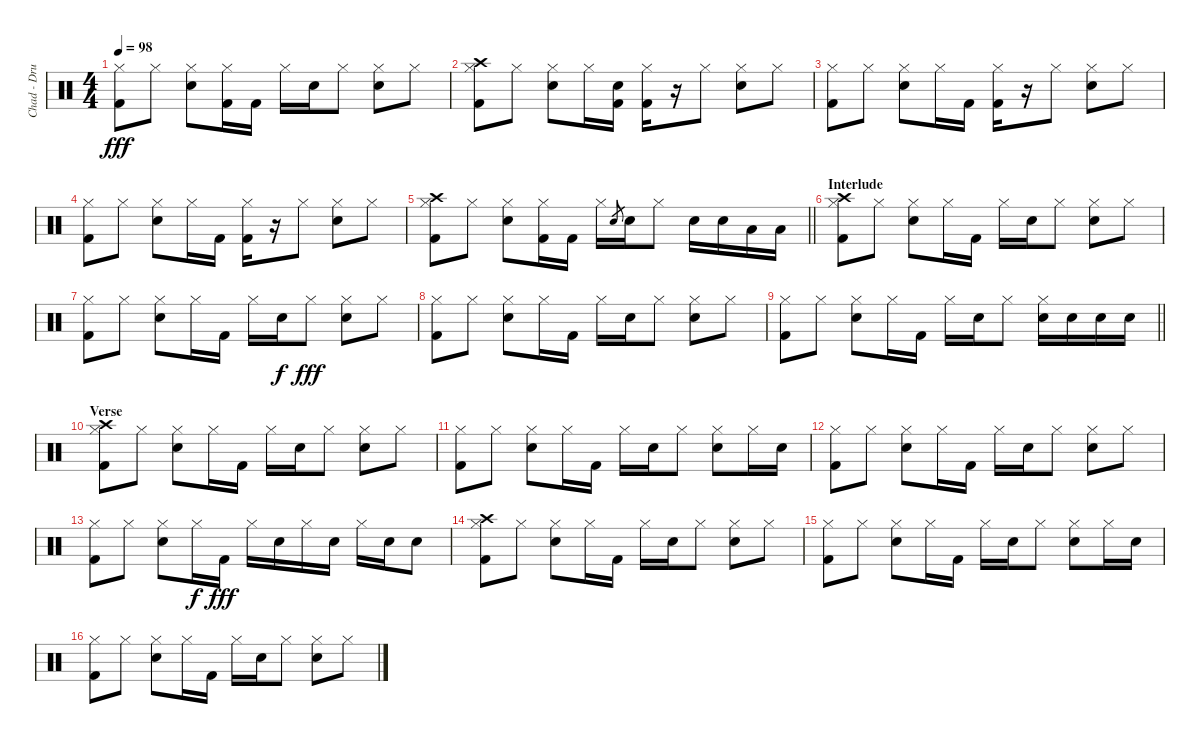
\track ("Chad - Drums" "Chad - Dru") {instrument percussion}
\staff {score}
\articulation defaults
\ts (4 4)
\tempo 98
\clef neutral
\ks c
("Hi-Hat (closed)" "Kick (hit) 2").8{dy fff} "Hi-Hat (closed)".8 ("Snare (hit) 2" "Hi-Hat (closed)").8 ("Hi-Hat (closed)" "Kick (hit) 2").16 "Kick (hit) 2".16 "Hi-Hat (closed)".16 "Snare (hit) 2".16 "Hi-Hat (closed)".8 ("Snare (hit) 2" "Hi-Hat (closed)").8 "Hi-Hat (closed)".8 |
("Hi-Hat (closed)" "Crash high (hit)" "Kick (hit) 2").8 "Hi-Hat (closed)".8 ("Snare (hit) 2" "Hi-Hat (closed)").8 "Hi-Hat (closed)".16 ("Snare (hit) 2" "Kick (hit) 2").16 ("Hi-Hat (closed)" "Kick (hit) 2").16 r.16 "Hi-Hat (closed)".8 ("Snare (hit) 2" "Hi-Hat (closed)").8 "Hi-Hat (closed)".8 |
("Hi-Hat (closed)" "Kick (hit) 2").8 "Hi-Hat (closed)".8 ("Snare (hit) 2" "Hi-Hat (closed)").8 "Hi-Hat (closed)".16 "Kick (hit) 2".16 ("Hi-Hat (closed)" "Kick (hit) 2").16 r.16 "Hi-Hat (closed)".8 ("Snare (hit) 2" "Hi-Hat (closed)").8 "Hi-Hat (closed)".8 |
("Hi-Hat (closed)" "Kick (hit) 2").8 "Hi-Hat (closed)".8 ("Snare (hit) 2" "Hi-Hat (closed)").8 "Hi-Hat (closed)".16 "Kick (hit) 2".16 ("Hi-Hat (closed)" "Kick (hit) 2").16 r.16 "Hi-Hat (closed)".8 ("Snare (hit) 2" "Hi-Hat (closed)").8 "Hi-Hat (closed)".8 |
\barLineRight lightlight
("Hi-Hat (closed)" "Crash high (hit)" "Kick (hit) 2").8 "Hi-Hat (closed)".8 ("Snare (hit) 2" "Hi-Hat (closed)").8 ("Hi-Hat (closed)" "Kick (hit) 2").16 "Kick (hit) 2".16 "Hi-Hat (closed)".16 "Snare (hit) 2".8{gr} "Snare (hit) 2".16 "Hi-Hat (closed)".8 "Snare (hit) 2".16 "Snare (hit) 2".16 "Low Tom (hit)".16 "Low Tom (hit)".16 |
\section ("" "Interlude")
("Hi-Hat (closed)" "Crash high (hit)" "Kick (hit) 2").8 "Hi-Hat (closed)".8 ("Snare (hit) 2" "Hi-Hat (closed)").8 "Hi-Hat (closed)".16 "Kick (hit) 2".16 "Hi-Hat (closed)".16 "Snare (hit) 2".16 "Hi-Hat (closed)".8 ("Snare (hit) 2" "Hi-Hat (closed)").8 "Hi-Hat (closed)".8 |
("Hi-Hat (closed)" "Kick (hit) 2").8 "Hi-Hat (closed)".8 ("Snare (hit) 2" "Hi-Hat (closed)").8 "Hi-Hat (closed)".16 "Kick (hit) 2".16 "Hi-Hat (closed)".16 "Snare (hit) 2".16{dy f} "Hi-Hat (closed)".8{dy fff} ("Snare (hit) 2" "Hi-Hat (closed)").8 "Hi-Hat (closed)".8 |
("Hi-Hat (closed)" "Kick (hit) 2").8 "Hi-Hat (closed)".8 ("Snare (hit) 2" "Hi-Hat (closed)").8 "Hi-Hat (closed)".16 "Kick (hit) 2".16 "Hi-Hat (closed)".16 "Snare (hit) 2".16 "Hi-Hat (closed)".8 ("Snare (hit) 2" "Hi-Hat (closed)").8 "Hi-Hat (closed)".8 |
\barLineRight lightlight
("Hi-Hat (closed)" "Kick (hit) 2").8 "Hi-Hat (closed)".8 ("Snare (hit) 2" "Hi-Hat (closed)").8 "Hi-Hat (closed)".16 "Kick (hit) 2".16 "Hi-Hat (closed)".16 "Snare (hit) 2".16 "Hi-Hat (closed)".8 ("Snare (hit) 2" "Hi-Hat (closed)").16 "Snare (hit) 2".16 "Snare (hit) 2".16 "Snare (hit) 2".16 |
\section ("" "Verse")
("Hi-Hat (closed)" "Crash high (hit)" "Kick (hit) 2").8 "Hi-Hat (closed)".8 ("Snare (hit) 2" "Hi-Hat (closed)").8 "Hi-Hat (closed)".16 "Kick (hit) 2".16 "Hi-Hat (closed)".16 "Snare (hit) 2".16 "Hi-Hat (closed)".8 ("Snare (hit) 2" "Hi-Hat (closed)").8 "Hi-Hat (closed)".8 |
("Hi-Hat (closed)" "Kick (hit) 2").8 "Hi-Hat (closed)".8 ("Snare (hit) 2" "Hi-Hat (closed)").8 "Hi-Hat (closed)".16 "Kick (hit) 2".16 "Hi-Hat (closed)".16 "Snare (hit) 2".16 "Hi-Hat (closed)".8 ("Snare (hit) 2" "Hi-Hat (closed)").8 "Hi-Hat (closed)".16 "Snare (hit) 2".16 |
("Hi-Hat (closed)" "Kick (hit) 2").8 "Hi-Hat (closed)".8 ("Snare (hit) 2" "Hi-Hat (closed)").8 "Hi-Hat (closed)".16 "Kick (hit) 2".16 "Hi-Hat (closed)".16 "Snare (hit) 2".16 "Hi-Hat (closed)".8 ("Snare (hit) 2" "Hi-Hat (closed)").8 "Hi-Hat (closed)".8 |
("Hi-Hat (closed)" "Kick (hit) 2").8 "Hi-Hat (closed)".8 ("Snare (hit) 2" "Hi-Hat (closed)").8 "Hi-Hat (closed)".16{dy f} "Kick (hit) 2".16{dy fff} "Hi-Hat (closed)".16 "Snare (hit) 2".16 "Hi-Hat (closed)".16 "Snare (hit) 2".16 "Hi-Hat (closed)".16 "Snare (hit) 2".16 "Snare (hit) 2".8 |
("Hi-Hat (closed)" "Crash high (hit)" "Kick (hit) 2").8 "Hi-Hat (closed)".8 ("Snare (hit) 2" "Hi-Hat (closed)").8 "Hi-Hat (closed)".16 "Kick (hit) 2".16 "Hi-Hat (closed)".16 "Snare (hit) 2".16 "Hi-Hat (closed)".8 ("Snare (hit) 2" "Hi-Hat (closed)").8 "Hi-Hat (closed)".8 |
("Hi-Hat (closed)" "Kick (hit) 2").8 "Hi-Hat (closed)".8 ("Snare (hit) 2" "Hi-Hat (closed)").8 "Hi-Hat (closed)".16 "Kick (hit) 2".16 "Hi-Hat (closed)".16 "Snare (hit) 2".16 "Hi-Hat (closed)".8 ("Snare (hit) 2" "Hi-Hat (closed)").8 "Hi-Hat (closed)".16 "Snare (hit) 2".16 |
("Hi-Hat (closed)" "Kick (hit) 2").8 "Hi-Hat (closed)".8 ("Snare (hit) 2" "Hi-Hat (closed)").8 "Hi-Hat (closed)".16 "Kick (hit) 2".16 "Hi-Hat (closed)".16 "Snare (hit) 2".16 "Hi-Hat (closed)".8 ("Snare (hit) 2" "Hi-Hat (closed)").8 "Hi-Hat (closed)".8
